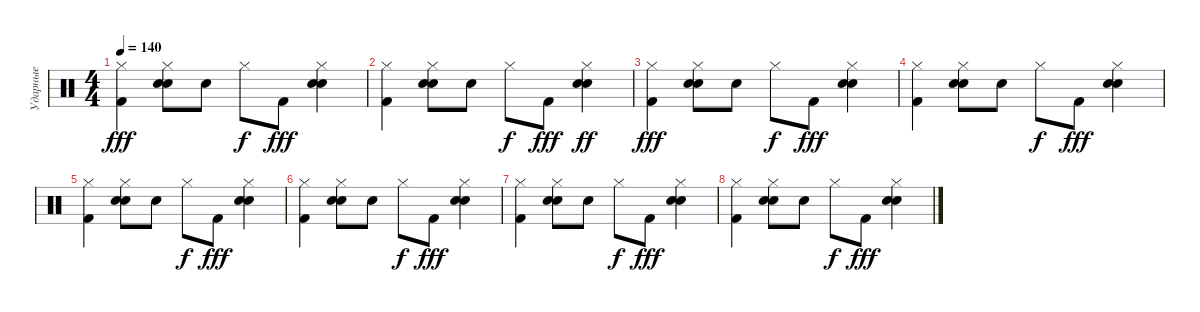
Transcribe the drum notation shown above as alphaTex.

\track ("Ударные" "Ударные") {instrument percussion}
\staff {score}
\articulation defaults
\ts (4 4)
\tempo 140
\clef neutral
\ks c
("Hi-Hat (closed)" "Kick (hit) 2").4{dy fff} ("Hi-Hat (closed)" "Hand Clap (hit)" "Snare (hit) 2").8 "Hand Clap (hit)".8 "Hi-Hat (closed)".8{dy f} "Kick (hit) 2".8{dy fff} ("Hi-Hat (closed)" "Hand Clap (hit)" "Snare (hit) 2").4 |
("Hi-Hat (closed)" "Kick (hit) 2").4 ("Hi-Hat (closed)" "Hand Clap (hit)" "Snare (hit) 2").8 "Hand Clap (hit)".8 "Hi-Hat (closed)".8{dy f} "Kick (hit) 2".8{dy fff} ("Hi-Hat (closed)" "Hand Clap (hit)" "Snare (hit) 2").4{dy ff} |
("Hi-Hat (closed)" "Kick (hit) 2").4{dy fff} ("Hi-Hat (closed)" "Hand Clap (hit)" "Snare (hit) 2").8 "Hand Clap (hit)".8 "Hi-Hat (closed)".8{dy f} "Kick (hit) 2".8{dy fff} ("Hi-Hat (closed)" "Hand Clap (hit)" "Snare (hit) 2").4 |
("Hi-Hat (closed)" "Kick (hit) 2").4 ("Hi-Hat (closed)" "Hand Clap (hit)" "Snare (hit) 2").8 "Hand Clap (hit)".8 "Hi-Hat (closed)".8{dy f} "Kick (hit) 2".8{dy fff} ("Hi-Hat (closed)" "Hand Clap (hit)" "Snare (hit) 2").4 |
("Hi-Hat (closed)" "Kick (hit) 2").4 ("Hi-Hat (closed)" "Hand Clap (hit)" "Snare (hit) 2").8 "Hand Clap (hit)".8 "Hi-Hat (closed)".8{dy f} "Kick (hit) 2".8{dy fff} ("Hi-Hat (closed)" "Hand Clap (hit)" "Snare (hit) 2").4 |
("Hi-Hat (closed)" "Kick (hit) 2").4 ("Hi-Hat (closed)" "Hand Clap (hit)" "Snare (hit) 2").8 "Hand Clap (hit)".8 "Hi-Hat (closed)".8{dy f} "Kick (hit) 2".8{dy fff} ("Hi-Hat (closed)" "Hand Clap (hit)" "Snare (hit) 2").4 |
("Hi-Hat (closed)" "Kick (hit) 2").4 ("Hi-Hat (closed)" "Hand Clap (hit)" "Snare (hit) 2").8 "Hand Clap (hit)".8 "Hi-Hat (closed)".8{dy f} "Kick (hit) 2".8{dy fff} ("Hi-Hat (closed)" "Hand Clap (hit)" "Snare (hit) 2").4 |
("Hi-Hat (closed)" "Kick (hit) 2").4 ("Hi-Hat (closed)" "Hand Clap (hit)" "Snare (hit) 2").8 "Hand Clap (hit)".8 "Hi-Hat (closed)".8{dy f} "Kick (hit) 2".8{dy fff} ("Hi-Hat (closed)" "Hand Clap (hit)" "Snare (hit) 2").4
